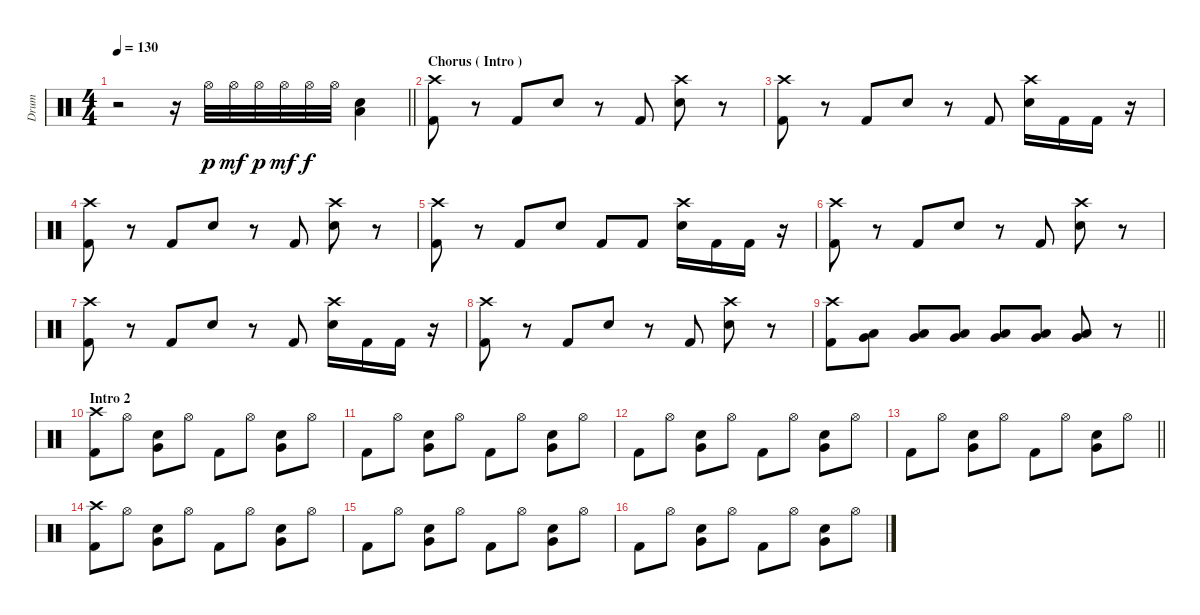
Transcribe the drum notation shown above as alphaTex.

\track ("Drum" "Drum") {instrument percussion}
\staff {score}
\articulation defaults
\ts (4 4)
\tempo 130
\clef neutral
\barLineRight lightlight
\ks c
r.2{dy p} r.16 "Hi-Hat (open)".32 "Hi-Hat (open)".32{dy mf} "Hi-Hat (open)".32{dy p} "Hi-Hat (open)".32{dy mf} "Hi-Hat (open)".32{dy f} "Hi-Hat (open)".32 ("Low Tom (hit)" "Electric Snare (hit)").4 |
\section ("" "Chorus ( Intro )")
("Kick (hit) 2" "Crash high (hit)").8 r.8 "Kick (hit) 2".8 "Electric Snare (hit)".8 r.8 "Kick (hit) 2".8 ("Electric Snare (hit)" "Crash high (hit)").8 r.8 |
("Kick (hit) 2" "Crash high (hit)").8 r.8 "Kick (hit) 2".8 "Electric Snare (hit)".8 r.8 "Kick (hit) 2".8 ("Electric Snare (hit)" "Crash high (hit)").16 "Kick (hit) 2".16 "Kick (hit) 2".16 r.16 |
("Kick (hit) 2" "Crash high (hit)").8 r.8 "Kick (hit) 2".8 "Electric Snare (hit)".8 r.8 "Kick (hit) 2".8 ("Electric Snare (hit)" "Crash high (hit)").8 r.8 |
("Kick (hit) 2" "Crash high (hit)").8 r.8 "Kick (hit) 2".8 "Electric Snare (hit)".8 "Kick (hit) 2".8 "Kick (hit) 2".8 ("Electric Snare (hit)" "Crash high (hit)").16 "Kick (hit) 2".16 "Kick (hit) 2".16 r.16 |
("Kick (hit) 2" "Crash high (hit)").8 r.8 "Kick (hit) 2".8 "Electric Snare (hit)".8 r.8 "Kick (hit) 2".8 ("Electric Snare (hit)" "Crash high (hit)").8 r.8 |
("Kick (hit) 2" "Crash high (hit)").8 r.8 "Kick (hit) 2".8 "Electric Snare (hit)".8 r.8 "Kick (hit) 2".8 ("Electric Snare (hit)" "Crash high (hit)").16 "Kick (hit) 2".16 "Kick (hit) 2".16 r.16 |
("Kick (hit) 2" "Crash high (hit)").8 r.8 "Kick (hit) 2".8 "Electric Snare (hit)".8 r.8 "Kick (hit) 2".8 ("Electric Snare (hit)" "Crash high (hit)").8 r.8 |
\barLineRight lightlight
("Kick (hit) 2" "Crash high (hit)").8 ("Low Floor Tom (hit)" "Very Low Tom (hit)").8 ("Low Floor Tom (hit)" "Very Low Tom (hit)").8 ("Low Floor Tom (hit)" "Very Low Tom (hit)").8 ("Low Floor Tom (hit)" "Very Low Tom (hit)").8 ("Low Floor Tom (hit)" "Very Low Tom (hit)").8 ("Low Floor Tom (hit)" "Very Low Tom (hit)").8 r.8 |
\section ("" "Intro 2")
("Kick (hit) 2" "Crash high (hit)").8 "Hi-Hat (open)".8 ("Snare (hit) 2" "Very Low Tom (hit)").8 "Hi-Hat (open)".8 "Kick (hit) 2".8 "Hi-Hat (open)".8 ("Snare (hit) 2" "Very Low Tom (hit)").8 "Hi-Hat (open)".8 |
"Kick (hit) 2".8 "Hi-Hat (open)".8 ("Snare (hit) 2" "Very Low Tom (hit)").8 "Hi-Hat (open)".8 "Kick (hit) 2".8 "Hi-Hat (open)".8 ("Snare (hit) 2" "Very Low Tom (hit)").8 "Hi-Hat (open)".8 |
"Kick (hit) 2".8 "Hi-Hat (open)".8 ("Snare (hit) 2" "Very Low Tom (hit)").8 "Hi-Hat (open)".8 "Kick (hit) 2".8 "Hi-Hat (open)".8 ("Snare (hit) 2" "Very Low Tom (hit)").8 "Hi-Hat (open)".8 |
\barLineRight lightlight "Kick (hit) 2".8 "Hi-Hat (open)".8
("Snare (hit) 2" "Very Low Tom (hit)").8 "Hi-Hat (open)".8 "Kick (hit) 2".8 "Hi-Hat (open)".8 ("Snare (hit) 2" "Very Low Tom (hit)").8 "Hi-Hat (open)".8 |
("Kick (hit) 2" "Crash high (hit)").8 "Hi-Hat (open)".8 ("Snare (hit) 2" "Very Low Tom (hit)").8 "Hi-Hat (open)".8 "Kick (hit) 2".8 "Hi-Hat (open)".8 ("Snare (hit) 2" "Very Low Tom (hit)").8 "Hi-Hat (open)".8 |
"Kick (hit) 2".8 "Hi-Hat (open)".8 ("Snare (hit) 2" "Very Low Tom (hit)").8 "Hi-Hat (open)".8 "Kick (hit) 2".8 "Hi-Hat (open)".8 ("Snare (hit) 2" "Very Low Tom (hit)").8 "Hi-Hat (open)".8 |
"Kick (hit) 2".8 "Hi-Hat (open)".8 ("Snare (hit) 2" "Very Low Tom (hit)").8 "Hi-Hat (open)".8 "Kick (hit) 2".8 "Hi-Hat (open)".8 ("Snare (hit) 2" "Very Low Tom (hit)").8 "Hi-Hat (open)".8
